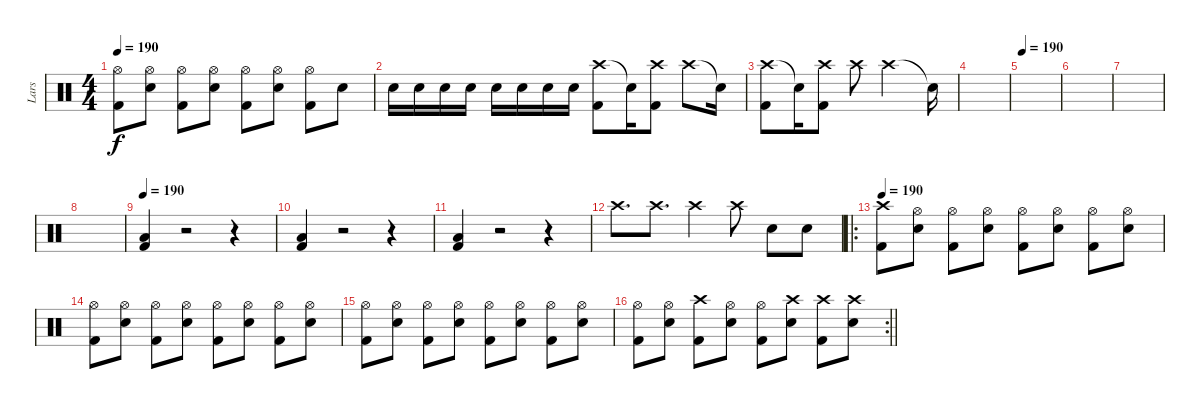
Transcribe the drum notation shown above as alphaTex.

\track ("Lars" "Lars") {instrument percussion}
\staff {score}
\articulation defaults
\ts (4 4)
\tempo 190
\clef neutral
\ks c
("Hi-Hat (open)" "Kick (hit) 2").8{dy f} ("Hi-Hat (open)" "Snare (hit) 2").8 ("Hi-Hat (open)" "Kick (hit) 2").8 ("Hi-Hat (open)" "Snare (hit) 2").8 ("Hi-Hat (open)" "Kick (hit) 2").8 ("Hi-Hat (open)" "Snare (hit) 2").8 ("Hi-Hat (open)" "Kick (hit) 2").8 "Snare (hit) 2".8 |
"Snare (hit) 2".16 "Snare (hit) 2".16 "Snare (hit) 2".16 "Snare (hit) 2".16 "Snare (hit) 2".16 "Snare (hit) 2".16 "Snare (hit) 2".16 "Snare (hit) 2".16 ("Crash high (hit)" "Kick (hit) 2").8 "Snare (hit)"{t}.16 ("Crash high (hit)" "Kick (hit) 2").8 "Crash high (hit)".8 "Snare (hit)"{t}.16 |
("Crash high (hit)" "Kick (hit) 2").8 "Snare (hit)"{t}.16 ("Crash high (hit)" "Kick (hit) 2").8 "Crash high (hit)".8 "Crash high (hit)".2 "Snare (hit)"{t}.16 |
|
\tempo 190
|
|
|
|
\tempo 190
("Kick (hit) 2" "Low Floor Tom (hit)").4 r.2 r.4 |
("Kick (hit) 2" "Low Floor Tom (hit)").4 r.2 r.4 |
("Kick (hit) 2" "Low Floor Tom (hit)").4 r.2 r.4 |
"Crash high (hit)".8{d} "Crash high (hit)".8{d} "Crash high (hit)".4 "Crash high (hit)".8 "Snare (hit) 2".8 "Snare (hit) 2".8 |
\ro
\tempo 190
("Crash high (hit)" "Kick (hit) 2").8 ("Hi-Hat (open)" "Snare (hit) 2").8 ("Hi-Hat (open)" "Kick (hit) 2").8 ("Hi-Hat (open)" "Snare (hit) 2").8 ("Hi-Hat (open)" "Kick (hit) 2").8 ("Hi-Hat (open)" "Snare (hit) 2").8 ("Hi-Hat (open)" "Kick (hit) 2").8 ("Hi-Hat (open)" "Snare (hit) 2").8 |
("Hi-Hat (open)" "Kick (hit) 2").8 ("Hi-Hat (open)" "Snare (hit) 2").8 ("Hi-Hat (open)" "Kick (hit) 2").8 ("Hi-Hat (open)" "Snare (hit) 2").8 ("Hi-Hat (open)" "Kick (hit) 2").8 ("Hi-Hat (open)" "Snare (hit) 2").8 ("Hi-Hat (open)" "Kick (hit) 2").8 ("Hi-Hat (open)" "Snare (hit) 2").8 |
("Hi-Hat (open)" "Kick (hit) 2").8 ("Hi-Hat (open)" "Snare (hit) 2").8 ("Hi-Hat (open)" "Kick (hit) 2").8 ("Hi-Hat (open)" "Snare (hit) 2").8 ("Hi-Hat (open)" "Kick (hit) 2").8 ("Hi-Hat (open)" "Snare (hit) 2").8 ("Hi-Hat (open)" "Kick (hit) 2").8 ("Hi-Hat (open)" "Snare (hit) 2").8 |
\rc 2
\barLineRight lightlight
("Hi-Hat (open)" "Kick (hit) 2").8 ("Hi-Hat (open)" "Snare (hit) 2").8 ("Crash high (hit)" "Kick (hit) 2").8 ("Hi-Hat (open)" "Snare (hit) 2").8 ("Hi-Hat (open)" "Kick (hit) 2").8 ("Crash high (hit)" "Snare (hit) 2").8 ("Crash high (hit)" "Kick (hit) 2").8 ("Crash high (hit)" "Snare (hit) 2").8
